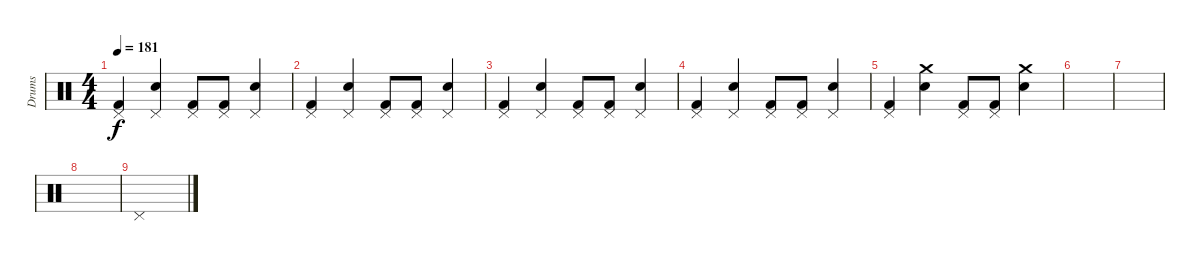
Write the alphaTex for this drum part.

\track ("Drums" "Drums") {instrument percussion}
\staff {score}
\articulation defaults
\ts (4 4)
\tempo 181
\clef neutral
\ks c
("Pedal Hi-Hat (hit)" "Kick (hit) 2").4{dy f} ("Pedal Hi-Hat (hit)" "Snare (hit) 2").4 ("Pedal Hi-Hat (hit)" "Kick (hit) 2").8 ("Pedal Hi-Hat (hit)" "Kick (hit) 2").8 ("Pedal Hi-Hat (hit)" "Snare (hit) 2").4 |
("Pedal Hi-Hat (hit)" "Kick (hit) 2").4 ("Pedal Hi-Hat (hit)" "Snare (hit) 2").4 ("Pedal Hi-Hat (hit)" "Kick (hit) 2").8 ("Pedal Hi-Hat (hit)" "Kick (hit) 2").8 ("Pedal Hi-Hat (hit)" "Snare (hit) 2").4 |
("Pedal Hi-Hat (hit)" "Kick (hit) 2").4 ("Pedal Hi-Hat (hit)" "Snare (hit) 2").4 ("Pedal Hi-Hat (hit)" "Kick (hit) 2").8 ("Pedal Hi-Hat (hit)" "Kick (hit) 2").8 ("Pedal Hi-Hat (hit)" "Snare (hit) 2").4 |
("Pedal Hi-Hat (hit)" "Kick (hit) 2").4 ("Pedal Hi-Hat (hit)" "Snare (hit) 2").4 ("Pedal Hi-Hat (hit)" "Kick (hit) 2").8 ("Pedal Hi-Hat (hit)" "Kick (hit) 2").8 ("Pedal Hi-Hat (hit)" "Snare (hit) 2").4 |
("Pedal Hi-Hat (hit)" "Kick (hit) 2").4 ("Crash medium (hit)" "Snare (hit) 2").4 ("Pedal Hi-Hat (hit)" "Kick (hit) 2").8 ("Pedal Hi-Hat (hit)" "Kick (hit) 2").8 ("Crash medium (hit)" "Snare (hit) 2").4 |
|
|
|
"Pedal Hi-Hat (hit)".1
